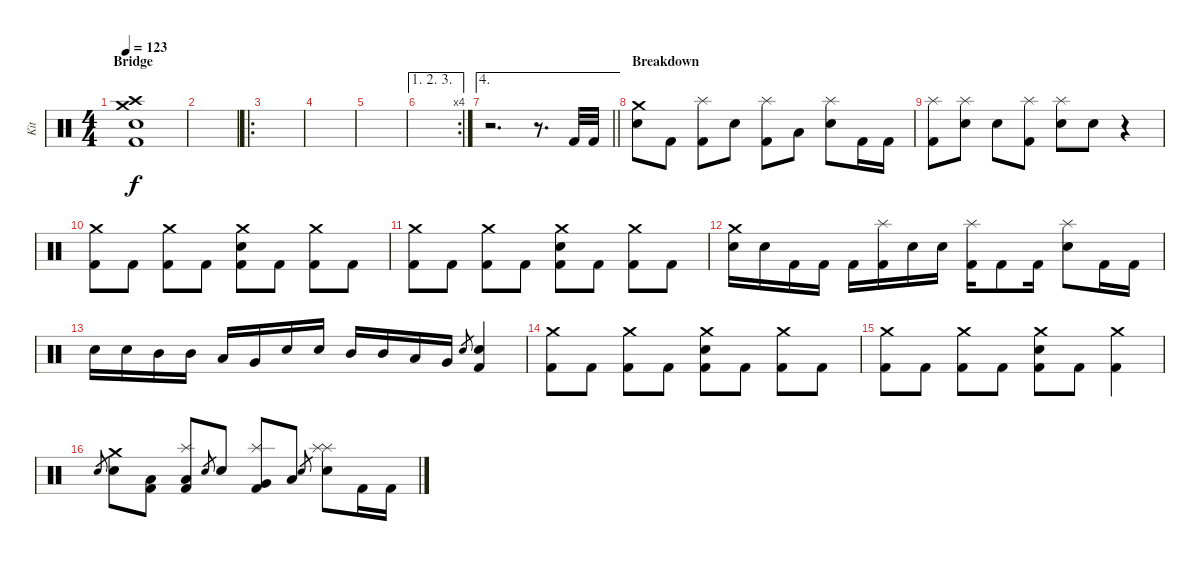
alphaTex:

\track ("Kit" "Kit") {instrument percussion}
\staff {score}
\articulation defaults
\ts (4 4)
\section ("" "Bridge")
\tempo 123
\clef neutral
\ks c
("Crash medium (hit)" "Crash high (hit)" "Electric Snare (hit)" "Kick (hit) 2").1{dy f} |
|
\ro
|
|
|
\ae (1 2 3)
\rc 4
|
\ae 4
\barLineRight lightlight
r.2{d} r.8{d} "Kick (hit) 2".32 "Kick (hit) 2".32 |
\section ("" "Breakdown")
("Crash medium (hit)" "Electric Snare (hit)").8 "Kick (hit) 2".8 ("Splash (hit)" "Kick (hit) 2").8 "Electric Snare (hit)".8 ("Splash (hit)" "Kick (hit) 2").8 "Low Tom (hit)".8 ("Splash (hit)" "Electric Snare (hit)").8 "Kick (hit) 2".16 "Kick (hit) 2".16 |
("Splash (hit)" "Kick (hit) 2").8 ("Splash (hit)" "Electric Snare (hit)").8 "Electric Snare (hit)".8 ("Splash (hit)" "Kick (hit) 2").8 ("Splash (hit)" "Electric Snare (hit)").8 "Electric Snare (hit)".8 r.4 |
("Crash medium (hit)" "Kick (hit) 2").8 "Kick (hit) 2".8 ("Crash medium (hit)" "Kick (hit) 2").8 "Kick (hit) 2".8 ("Crash medium (hit)" "Electric Snare (hit)" "Kick (hit) 2").8 "Kick (hit) 2".8 ("Crash medium (hit)" "Kick (hit) 2").8 "Kick (hit) 2".8 |
("Crash medium (hit)" "Kick (hit) 2").8 "Kick (hit) 2".8 ("Crash medium (hit)" "Kick (hit) 2").8 "Kick (hit) 2".8 ("Crash medium (hit)" "Electric Snare (hit)" "Kick (hit) 2").8 "Kick (hit) 2".8 ("Crash medium (hit)" "Kick (hit) 2").8 "Kick (hit) 2".8 |
("Crash medium (hit)" "Electric Snare (hit)").16 "Electric Snare (hit)".16 "Kick (hit) 2".16 "Kick (hit) 2".16 "Kick (hit) 2".16 ("Splash (hit)" "Kick (hit) 2").16 "Electric Snare (hit)".16 "Electric Snare (hit)".16 ("Splash (hit)" "Kick (hit) 2").16 "Kick (hit) 2".8 "Kick (hit) 2".16 ("Splash (hit)" "Electric Snare (hit)").8 "Kick (hit) 2".16 "Kick (hit) 2".16 |
"Electric Snare (hit)".16 "Electric Snare (hit)".16 "Mid Tom (hit)".16 "Mid Tom (hit)".16 "Low Tom (hit)".16 "Very Low Tom (hit)".16 "Electric Snare (hit)".16 "Electric Snare (hit)".16 "Mid Tom (hit)".16 "Mid Tom (hit)".16 "Low Tom (hit)".16 "Very Low Tom (hit)".16 "Electric Snare (hit)".8{gr} ("Electric Snare (hit)" "Kick (hit) 2").4 |
("Crash medium (hit)" "Kick (hit) 2").8 "Kick (hit) 2".8 ("Crash medium (hit)" "Kick (hit) 2").8 "Kick (hit) 2".8 ("Crash medium (hit)" "Electric Snare (hit)" "Kick (hit) 2").8 "Kick (hit) 2".8 ("Crash medium (hit)" "Kick (hit) 2").8 "Kick (hit) 2".8 |
("Crash medium (hit)" "Kick (hit) 2").8 "Kick (hit) 2".8 ("Crash medium (hit)" "Kick (hit) 2").8 "Kick (hit) 2".8 ("Crash medium (hit)" "Electric Snare (hit)" "Kick (hit) 2").8 "Kick (hit) 2".8 ("Crash medium (hit)" "Kick (hit) 2").4 |
"Electric Snare (hit)".8{gr} ("Crash medium (hit)" "Electric Snare (hit)").8 ("Low Tom (hit)" "Kick (hit) 2").8 ("Splash (hit)" "Low Tom (hit)" "Kick (hit) 2").8 "Electric Snare (hit)".8{gr} "Electric Snare (hit)".8 ("Splash (hit)" "Very Low Tom (hit)" "Kick (hit) 2").8 "Low Tom (hit)".8 "Electric Snare (hit)".8{gr} ("Splash (hit)" "Splash (hit)" "Electric Snare (hit)").8 "Kick (hit) 2".16 "Kick (hit) 2".16
